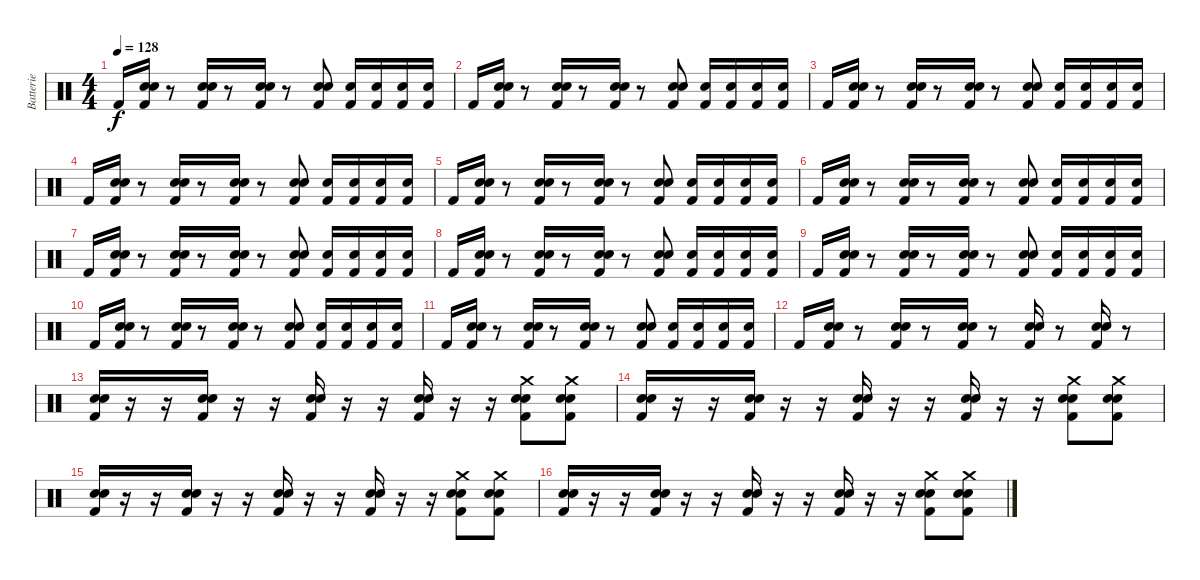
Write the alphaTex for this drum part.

\track ("Batterie" "Batterie") {instrument percussion}
\staff {score}
\articulation defaults
\ts (4 4)
\tempo 128
\clef neutral
\ks c "Kick (hit) 2".16{dy f}
("Electric Snare (hit)" "Kick (hit) 2" "Snare (hit) 2").16 r.8 ("Snare (hit) 2" "Electric Snare (hit)" "Kick (hit) 2").16 r.8 ("Snare (hit) 2" "Electric Snare (hit)" "Kick (hit) 2").16 r.8 ("Electric Snare (hit)" "Snare (hit) 2" "Kick (hit) 2").8 ("Kick (hit) 2" "Electric Snare (hit)").16 ("Kick (hit) 2" "Electric Snare (hit)").16 ("Kick (hit) 2" "Electric Snare (hit)").16 ("Kick (hit) 2" "Electric Snare (hit)").16 |
"Kick (hit) 2".16 ("Electric Snare (hit)" "Kick (hit) 2" "Snare (hit) 2").16 r.8 ("Snare (hit) 2" "Electric Snare (hit)" "Kick (hit) 2").16 r.8 ("Snare (hit) 2" "Electric Snare (hit)" "Kick (hit) 2").16 r.8 ("Electric Snare (hit)" "Snare (hit) 2" "Kick (hit) 2").8 ("Kick (hit) 2" "Electric Snare (hit)").16 ("Kick (hit) 2" "Electric Snare (hit)").16 ("Kick (hit) 2" "Electric Snare (hit)").16 ("Kick (hit) 2" "Electric Snare (hit)").16 |
"Kick (hit) 2".16 ("Electric Snare (hit)" "Kick (hit) 2" "Snare (hit) 2").16 r.8 ("Snare (hit) 2" "Electric Snare (hit)" "Kick (hit) 2").16 r.8 ("Snare (hit) 2" "Electric Snare (hit)" "Kick (hit) 2").16 r.8 ("Electric Snare (hit)" "Snare (hit) 2" "Kick (hit) 2").8 ("Kick (hit) 2" "Electric Snare (hit)").16 ("Kick (hit) 2" "Electric Snare (hit)").16 ("Kick (hit) 2" "Electric Snare (hit)").16 ("Kick (hit) 2" "Electric Snare (hit)").16 |
"Kick (hit) 2".16 ("Electric Snare (hit)" "Kick (hit) 2" "Snare (hit) 2").16 r.8 ("Snare (hit) 2" "Electric Snare (hit)" "Kick (hit) 2").16 r.8 ("Snare (hit) 2" "Electric Snare (hit)" "Kick (hit) 2").16 r.8 ("Electric Snare (hit)" "Snare (hit) 2" "Kick (hit) 2").8 ("Kick (hit) 2" "Electric Snare (hit)").16 ("Kick (hit) 2" "Electric Snare (hit)").16 ("Kick (hit) 2" "Electric Snare (hit)").16 ("Kick (hit) 2" "Electric Snare (hit)").16 |
"Kick (hit) 2".16 ("Electric Snare (hit)" "Kick (hit) 2" "Snare (hit) 2").16 r.8 ("Snare (hit) 2" "Electric Snare (hit)" "Kick (hit) 2").16 r.8 ("Snare (hit) 2" "Electric Snare (hit)" "Kick (hit) 2").16 r.8 ("Electric Snare (hit)" "Snare (hit) 2" "Kick (hit) 2").8 ("Kick (hit) 2" "Electric Snare (hit)").16 ("Kick (hit) 2" "Electric Snare (hit)").16 ("Kick (hit) 2" "Electric Snare (hit)").16 ("Kick (hit) 2" "Electric Snare (hit)").16 |
"Kick (hit) 2".16 ("Electric Snare (hit)" "Kick (hit) 2" "Snare (hit) 2").16 r.8 ("Snare (hit) 2" "Electric Snare (hit)" "Kick (hit) 2").16 r.8 ("Snare (hit) 2" "Electric Snare (hit)" "Kick (hit) 2").16 r.8 ("Electric Snare (hit)" "Snare (hit) 2" "Kick (hit) 2").8 ("Kick (hit) 2" "Electric Snare (hit)").16 ("Kick (hit) 2" "Electric Snare (hit)").16 ("Kick (hit) 2" "Electric Snare (hit)").16 ("Kick (hit) 2" "Electric Snare (hit)").16 |
"Kick (hit) 2".16 ("Electric Snare (hit)" "Kick (hit) 2" "Snare (hit) 2").16 r.8 ("Snare (hit) 2" "Electric Snare (hit)" "Kick (hit) 2").16 r.8 ("Snare (hit) 2" "Electric Snare (hit)" "Kick (hit) 2").16 r.8 ("Electric Snare (hit)" "Snare (hit) 2" "Kick (hit) 2").8 ("Kick (hit) 2" "Electric Snare (hit)").16 ("Kick (hit) 2" "Electric Snare (hit)").16 ("Kick (hit) 2" "Electric Snare (hit)").16 ("Kick (hit) 2" "Electric Snare (hit)").16 |
"Kick (hit) 2".16 ("Electric Snare (hit)" "Kick (hit) 2" "Snare (hit) 2").16 r.8 ("Snare (hit) 2" "Electric Snare (hit)" "Kick (hit) 2").16 r.8 ("Snare (hit) 2" "Electric Snare (hit)" "Kick (hit) 2").16 r.8 ("Electric Snare (hit)" "Snare (hit) 2" "Kick (hit) 2").8 ("Kick (hit) 2" "Electric Snare (hit)").16 ("Kick (hit) 2" "Electric Snare (hit)").16 ("Kick (hit) 2" "Electric Snare (hit)").16 ("Kick (hit) 2" "Electric Snare (hit)").16 |
"Kick (hit) 2".16 ("Electric Snare (hit)" "Kick (hit) 2" "Snare (hit) 2").16 r.8 ("Snare (hit) 2" "Electric Snare (hit)" "Kick (hit) 2").16 r.8 ("Snare (hit) 2" "Electric Snare (hit)" "Kick (hit) 2").16 r.8 ("Electric Snare (hit)" "Snare (hit) 2" "Kick (hit) 2").8 ("Kick (hit) 2" "Electric Snare (hit)").16 ("Kick (hit) 2" "Electric Snare (hit)").16 ("Kick (hit) 2" "Electric Snare (hit)").16 ("Kick (hit) 2" "Electric Snare (hit)").16 |
"Kick (hit) 2".16 ("Electric Snare (hit)" "Kick (hit) 2" "Snare (hit) 2").16 r.8 ("Snare (hit) 2" "Electric Snare (hit)" "Kick (hit) 2").16 r.8 ("Snare (hit) 2" "Electric Snare (hit)" "Kick (hit) 2").16 r.8 ("Electric Snare (hit)" "Snare (hit) 2" "Kick (hit) 2").8 ("Kick (hit) 2" "Electric Snare (hit)").16 ("Kick (hit) 2" "Electric Snare (hit)").16 ("Kick (hit) 2" "Electric Snare (hit)").16 ("Kick (hit) 2" "Electric Snare (hit)").16 |
"Kick (hit) 2".16 ("Electric Snare (hit)" "Kick (hit) 2" "Snare (hit) 2").16 r.8 ("Snare (hit) 2" "Electric Snare (hit)" "Kick (hit) 2").16 r.8 ("Snare (hit) 2" "Electric Snare (hit)" "Kick (hit) 2").16 r.8 ("Electric Snare (hit)" "Snare (hit) 2" "Kick (hit) 2").8 ("Kick (hit) 2" "Electric Snare (hit)").16 ("Kick (hit) 2" "Electric Snare (hit)").16 ("Kick (hit) 2" "Electric Snare (hit)").16 ("Kick (hit) 2" "Electric Snare (hit)").16 |
"Kick (hit) 2".16 ("Electric Snare (hit)" "Kick (hit) 2" "Snare (hit) 2").16 r.8 ("Snare (hit) 2" "Electric Snare (hit)" "Kick (hit) 2").16 r.8 ("Snare (hit) 2" "Electric Snare (hit)" "Kick (hit) 2").16 r.8 ("Electric Snare (hit)" "Snare (hit) 2" "Kick (hit) 2").16 r.8 ("Snare (hit) 2" "Electric Snare (hit)" "Kick (hit) 2").16 r.8 |
("Electric Snare (hit)" "Snare (hit) 2" "Kick (hit) 2").16 r.16 r.16 ("Electric Snare (hit)" "Snare (hit) 2" "Kick (hit) 2").16 r.16 r.16 ("Electric Snare (hit)" "Snare (hit) 2" "Kick (hit) 2").16 r.16 r.16 ("Electric Snare (hit)" "Snare (hit) 2" "Kick (hit) 2").16 r.16 r.16 ("Crash medium (hit)" "Snare (hit) 2" "Electric Snare (hit)" "Kick (hit) 2").8 ("Crash medium (hit)" "Snare (hit) 2" "Electric Snare (hit)" "Kick (hit) 2").8 |
("Electric Snare (hit)" "Snare (hit) 2" "Kick (hit) 2").16 r.16 r.16 ("Electric Snare (hit)" "Snare (hit) 2" "Kick (hit) 2").16 r.16 r.16 ("Electric Snare (hit)" "Snare (hit) 2" "Kick (hit) 2").16 r.16 r.16 ("Electric Snare (hit)" "Snare (hit) 2" "Kick (hit) 2").16 r.16 r.16 ("Crash medium (hit)" "Snare (hit) 2" "Electric Snare (hit)" "Kick (hit) 2").8 ("Crash medium (hit)" "Snare (hit) 2" "Electric Snare (hit)" "Kick (hit) 2").8 |
("Electric Snare (hit)" "Snare (hit) 2" "Kick (hit) 2").16 r.16 r.16 ("Electric Snare (hit)" "Snare (hit) 2" "Kick (hit) 2").16 r.16 r.16 ("Electric Snare (hit)" "Snare (hit) 2" "Kick (hit) 2").16 r.16 r.16 ("Electric Snare (hit)" "Snare (hit) 2" "Kick (hit) 2").16 r.16 r.16 ("Crash medium (hit)" "Snare (hit) 2" "Electric Snare (hit)" "Kick (hit) 2").8 ("Crash medium (hit)" "Snare (hit) 2" "Electric Snare (hit)" "Kick (hit) 2").8 |
("Electric Snare (hit)" "Snare (hit) 2" "Kick (hit) 2").16 r.16 r.16 ("Electric Snare (hit)" "Snare (hit) 2" "Kick (hit) 2").16 r.16 r.16 ("Electric Snare (hit)" "Snare (hit) 2" "Kick (hit) 2").16 r.16 r.16 ("Electric Snare (hit)" "Snare (hit) 2" "Kick (hit) 2").16 r.16 r.16 ("Crash medium (hit)" "Snare (hit) 2" "Electric Snare (hit)" "Kick (hit) 2").8 ("Crash medium (hit)" "Snare (hit) 2" "Electric Snare (hit)" "Kick (hit) 2").8
